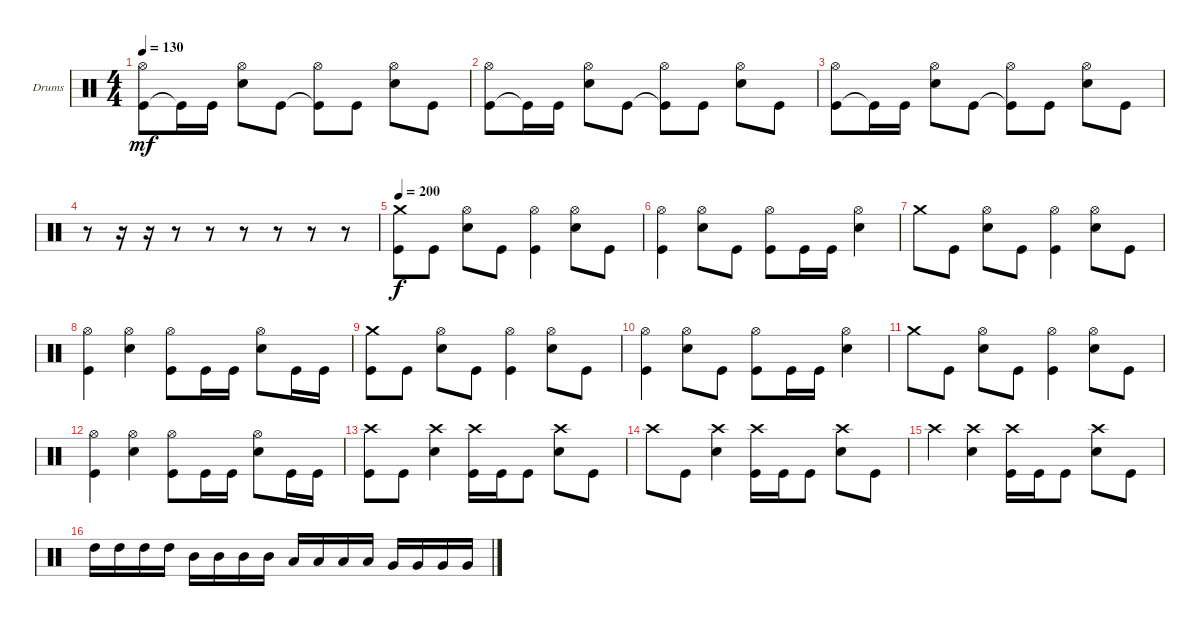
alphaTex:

\bracketExtendMode groupsimilarinstruments
\firstSystemTrackNameOrientation horizontal
\otherSystemsTrackNameOrientation horizontal
\track ("Emile Bardou" "Drums") {instrument percussion}
\staff {score}
\articulation defaults
\ts (4 4)
\tempo 130
\clef neutral
\scale
0.333333
\ks c
("Kick (hit)" "Hi-Hat (open)").8{dy mf} "Kick (hit)"{t}.16 "Kick (hit)".16 ("Hi-Hat (open)" "Snare (hit) 2").8 "Kick (hit)".8 ("Kick (hit)"{t} "Hi-Hat (open)").8 "Kick (hit)".8 ("Hi-Hat (open)" "Snare (hit) 2").8 "Kick (hit)".8 |
\scale
0.333333 ("Kick (hit)" "Hi-Hat (open)").8 "Kick (hit)"{t}.16 "Kick (hit)".16 ("Hi-Hat (open)" "Snare (hit) 2").8 "Kick (hit)".8 ("Kick (hit)"{t} "Hi-Hat (open)").8 "Kick (hit)".8 ("Hi-Hat (open)" "Snare (hit) 2").8 "Kick (hit)".8 |
\scale
0.333333 ("Kick (hit)" "Hi-Hat (open)").8 "Kick (hit)"{t}.16 "Kick (hit)".16 ("Hi-Hat (open)" "Snare (hit) 2").8 "Kick (hit)".8 ("Kick (hit)"{t} "Hi-Hat (open)").8 "Kick (hit)".8 ("Hi-Hat (open)" "Snare (hit) 2").8 "Kick (hit)".8 |
\scale
0.333333 r.8 r.16 r.16 r.8 r.8 r.8 r.8 r.8 r.8 |
\tempo 200
("Crash medium (hit)" "Kick (hit)").8{dy f} "Kick (hit)".8 ("Hi-Hat (open)" "Snare (hit) 2").8 "Kick (hit)".8 ("Hi-Hat (open)" "Kick (hit)").4 ("Hi-Hat (open)" "Snare (hit) 2").8 "Kick (hit)".8 |
("Hi-Hat (open)" "Kick (hit)").4 ("Hi-Hat (open)" "Snare (hit) 2").8 "Kick (hit)".8 ("Hi-Hat (open)" "Kick (hit)").8 "Kick (hit)".16 "Kick (hit)".16 ("Snare (hit) 2" "Hi-Hat (open)").4 |
"Crash medium (hit)".8 "Kick (hit)".8 ("Hi-Hat (open)" "Snare (hit) 2").8 "Kick (hit)".8 ("Hi-Hat (open)" "Kick (hit)").4 ("Hi-Hat (open)" "Snare (hit) 2").8 "Kick (hit)".8 |
("Hi-Hat (open)" "Kick (hit)").4 ("Hi-Hat (open)" "Snare (hit) 2").4 ("Hi-Hat (open)" "Kick (hit)").8 "Kick (hit)".16 "Kick (hit)".16 ("Hi-Hat (open)" "Snare (hit) 2").8 "Kick (hit)".16 "Kick (hit)".16 |
("Crash medium (hit)" "Kick (hit)").8 "Kick (hit)".8 ("Hi-Hat (open)" "Snare (hit) 2").8 "Kick (hit)".8 ("Hi-Hat (open)" "Kick (hit)").4 ("Hi-Hat (open)" "Snare (hit) 2").8 "Kick (hit)".8 |
("Hi-Hat (open)" "Kick (hit)").4 ("Hi-Hat (open)" "Snare (hit) 2").8 "Kick (hit)".8 ("Hi-Hat (open)" "Kick (hit)").8 "Kick (hit)".16 "Kick (hit)".16 ("Snare (hit) 2" "Hi-Hat (open)").4 |
"Crash medium (hit)".8 "Kick (hit)".8 ("Hi-Hat (open)" "Snare (hit) 2").8 "Kick (hit)".8 ("Hi-Hat (open)" "Kick (hit)").4 ("Hi-Hat (open)" "Snare (hit) 2").8 "Kick (hit)".8 |
("Hi-Hat (open)" "Kick (hit)").4 ("Hi-Hat (open)" "Snare (hit) 2").4 ("Hi-Hat (open)" "Kick (hit)").8 "Kick (hit)".16 "Kick (hit)".16 ("Hi-Hat (open)" "Snare (hit) 2").8 "Kick (hit)".16 "Kick (hit)".16 |
("Crash high (hit)" "Kick (hit)").8 "Kick (hit)".8 ("Crash high (hit)" "Snare (hit) 2").4 ("Crash high (hit)" "Kick (hit)").16 "Kick (hit)".16 "Kick (hit)".8 ("Crash high (hit)" "Snare (hit) 2").8 "Kick (hit)".8 |
"Crash high (hit)".8 "Kick (hit)".8 ("Crash high (hit)" "Snare (hit) 2").4 ("Crash high (hit)" "Kick (hit)").16 "Kick (hit)".16 "Kick (hit)".8 ("Crash high (hit)" "Snare (hit) 2").8 "Kick (hit)".8 |
"Crash high (hit)".4 ("Crash high (hit)" "Snare (hit) 2").4 ("Crash high (hit)" "Kick (hit)").16 "Kick (hit)".16 "Kick (hit)".8 ("Crash high (hit)" "Snare (hit) 2").8 "Kick (hit)".8 |
"High Tom (hit)".16 "High Tom (hit)".16 "High Tom (hit)".16 "High Tom (hit)".16 "Mid Tom (hit)".16 "Mid Tom (hit)".16 "Mid Tom (hit)".16 "Mid Tom (hit)".16 "Low Tom (hit)".16 "Low Tom (hit)".16 "Low Tom (hit)".16 "Low Tom (hit)".16 "Very Low Tom (hit)".16 "Very Low Tom (hit)".16 "Very Low Tom (hit)".16 "Very Low Tom (hit)".16
